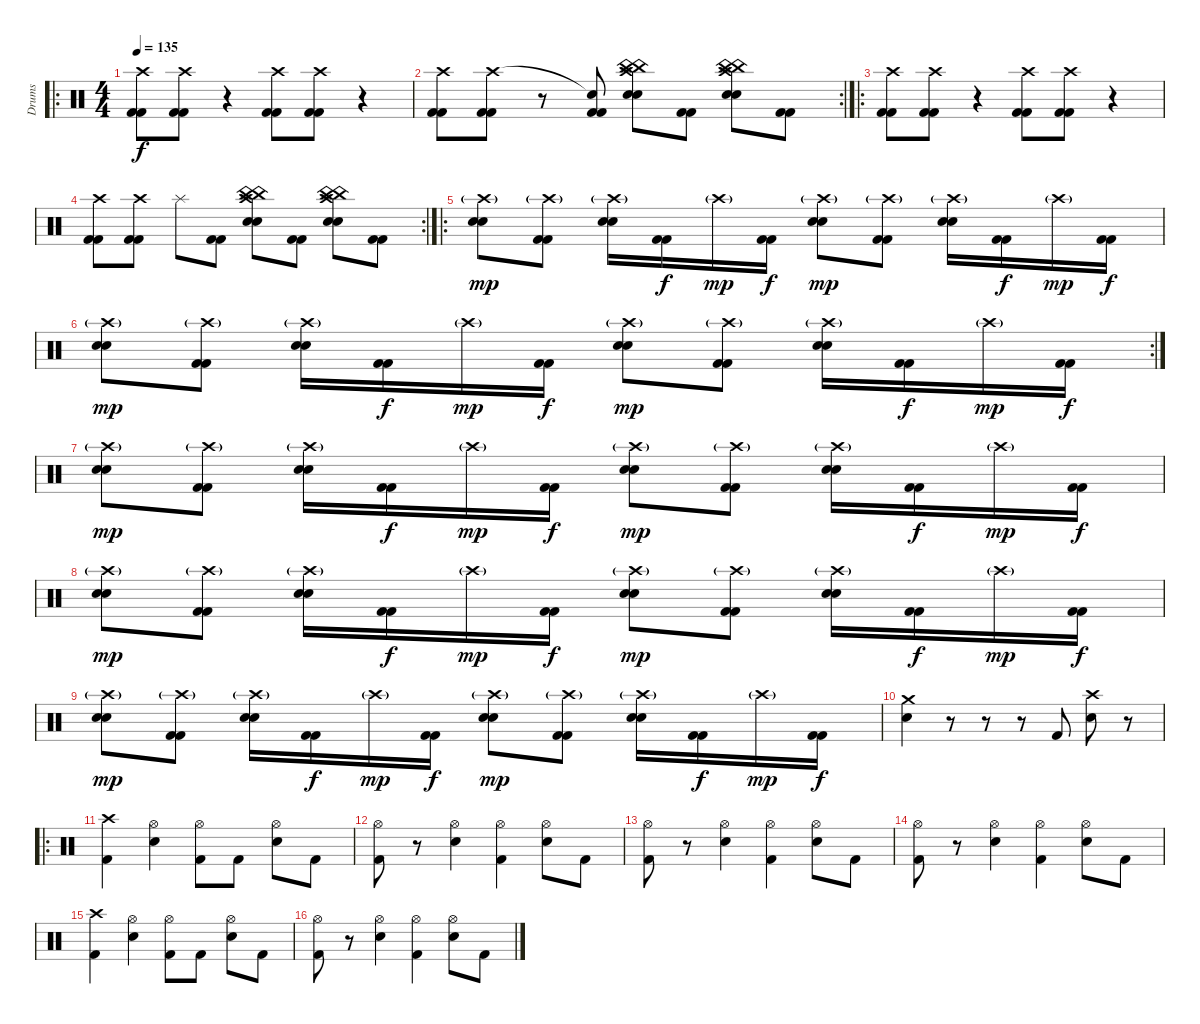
\track ("Drums" "Drums") {instrument percussion}
\staff {score}
\articulation defaults
\ro
\ts (4 4)
\tempo 135
\clef neutral
\ks c
("Crash high (hit)" "Kick (hit) 2" "Kick (hit) 2").8{dy f} ("Crash high (hit)" "Kick (hit) 2" "Kick (hit) 2").8 r.4 ("Crash high (hit)" "Kick (hit) 2" "Kick (hit) 2").8 ("Crash high (hit)" "Kick (hit) 2" "Kick (hit) 2").8 r.4 |
\rc 2
("Crash high (hit)" "Kick (hit) 2" "Kick (hit) 2").8 ("Crash high (hit)" "Kick (hit) 2" "Kick (hit) 2").8 r.8 ("Snare (hit)"{t} "Kick (hit) 2" "Kick (hit) 2").8 ("Crash high (hit)" "China (hit)" "China (hit)" "Electric Snare (hit)" "Electric Snare (hit)").8 ("Kick (hit) 2" "Kick (hit) 2").8 ("Crash high (hit)" "China (hit)" "China (hit)" "Electric Snare (hit)" "Electric Snare (hit)").8 ("Kick (hit) 2" "Kick (hit) 2").8 |
\ro
("Crash high (hit)" "Kick (hit) 2" "Kick (hit) 2").8 ("Crash high (hit)" "Kick (hit) 2" "Kick (hit) 2").8 r.4 ("Crash high (hit)" "Kick (hit) 2" "Kick (hit) 2").8 ("Crash high (hit)" "Kick (hit) 2" "Kick (hit) 2").8 r.4 |
\rc 2
("Crash high (hit)" "Kick (hit) 2" "Kick (hit) 2").8 ("Crash high (hit)" "Kick (hit) 2" "Kick (hit) 2").8 "Splash (hit)".8 ("Kick (hit) 2" "Kick (hit) 2").8 ("Crash high (hit)" "China (hit)" "China (hit)" "Electric Snare (hit)" "Electric Snare (hit)").8 ("Kick (hit) 2" "Kick (hit) 2").8 ("Crash high (hit)" "China (hit)" "China (hit)" "Electric Snare (hit)" "Electric Snare (hit)").8 ("Kick (hit) 2" "Kick (hit) 2").8 |
\ro
("Crash high (hit)"{g} "Electric Snare (hit)" "Electric Snare (hit)").8{dy mp} ("Crash high (hit)"{g} "Kick (hit) 2" "Kick (hit) 2").8 ("Crash high (hit)"{g} "Electric Snare (hit)" "Electric Snare (hit)").16 ("Kick (hit) 2" "Kick (hit) 2").16{dy f} "Crash high (hit)"{g}.16{dy mp} ("Kick (hit) 2" "Kick (hit) 2").16{dy f} ("Crash high (hit)"{g} "Electric Snare (hit)" "Electric Snare (hit)").8{dy mp} ("Crash high (hit)"{g} "Kick (hit) 2" "Kick (hit) 2").8 ("Crash high (hit)"{g} "Electric Snare (hit)" "Electric Snare (hit)").16 ("Kick (hit) 2" "Kick (hit) 2").16{dy f} "Crash high (hit)"{g}.16{dy mp} ("Kick (hit) 2" "Kick (hit) 2").16{dy f} |
\rc 2
("Crash high (hit)"{g} "Electric Snare (hit)" "Electric Snare (hit)").8{dy mp} ("Crash high (hit)"{g} "Kick (hit) 2" "Kick (hit) 2").8 ("Crash high (hit)"{g} "Electric Snare (hit)" "Electric Snare (hit)").16 ("Kick (hit) 2" "Kick (hit) 2").16{dy f} "Crash high (hit)"{g}.16{dy mp} ("Kick (hit) 2" "Kick (hit) 2").16{dy f} ("Crash high (hit)"{g} "Electric Snare (hit)" "Electric Snare (hit)").8{dy mp} ("Crash high (hit)"{g} "Kick (hit) 2" "Kick (hit) 2").8 ("Crash high (hit)"{g} "Electric Snare (hit)" "Electric Snare (hit)").16 ("Kick (hit) 2" "Kick (hit) 2").16{dy f} "Crash high (hit)"{g}.16{dy mp} ("Kick (hit) 2" "Kick (hit) 2").16{dy f} |
("Crash high (hit)"{g} "Electric Snare (hit)" "Electric Snare (hit)").8{dy mp} ("Crash high (hit)"{g} "Kick (hit) 2" "Kick (hit) 2").8 ("Crash high (hit)"{g} "Electric Snare (hit)" "Electric Snare (hit)").16 ("Kick (hit) 2" "Kick (hit) 2").16{dy f} "Crash high (hit)"{g}.16{dy mp} ("Kick (hit) 2" "Kick (hit) 2").16{dy f} ("Crash high (hit)"{g} "Electric Snare (hit)" "Electric Snare (hit)").8{dy mp} ("Crash high (hit)"{g} "Kick (hit) 2" "Kick (hit) 2").8 ("Crash high (hit)"{g} "Electric Snare (hit)" "Electric Snare (hit)").16 ("Kick (hit) 2" "Kick (hit) 2").16{dy f} "Crash high (hit)"{g}.16{dy mp} ("Kick (hit) 2" "Kick (hit) 2").16{dy f} |
("Crash high (hit)"{g} "Electric Snare (hit)" "Electric Snare (hit)").8{dy mp} ("Crash high (hit)"{g} "Kick (hit) 2" "Kick (hit) 2").8 ("Crash high (hit)"{g} "Electric Snare (hit)" "Electric Snare (hit)").16 ("Kick (hit) 2" "Kick (hit) 2").16{dy f} "Crash high (hit)"{g}.16{dy mp} ("Kick (hit) 2" "Kick (hit) 2").16{dy f} ("Crash high (hit)"{g} "Electric Snare (hit)" "Electric Snare (hit)").8{dy mp} ("Crash high (hit)"{g} "Kick (hit) 2" "Kick (hit) 2").8 ("Crash high (hit)"{g} "Electric Snare (hit)" "Electric Snare (hit)").16 ("Kick (hit) 2" "Kick (hit) 2").16{dy f} "Crash high (hit)"{g}.16{dy mp} ("Kick (hit) 2" "Kick (hit) 2").16{dy f} |
("Crash high (hit)"{g} "Electric Snare (hit)" "Electric Snare (hit)").8{dy mp} ("Crash high (hit)"{g} "Kick (hit) 2" "Kick (hit) 2").8 ("Crash high (hit)"{g} "Electric Snare (hit)" "Electric Snare (hit)").16 ("Kick (hit) 2" "Kick (hit) 2").16{dy f} "Crash high (hit)"{g}.16{dy mp} ("Kick (hit) 2" "Kick (hit) 2").16{dy f} ("Crash high (hit)"{g} "Electric Snare (hit)" "Electric Snare (hit)").8{dy mp} ("Crash high (hit)"{g} "Kick (hit) 2" "Kick (hit) 2").8 ("Crash high (hit)"{g} "Electric Snare (hit)" "Electric Snare (hit)").16 ("Kick (hit) 2" "Kick (hit) 2").16{dy f} "Crash high (hit)"{g}.16{dy mp} ("Kick (hit) 2" "Kick (hit) 2").16{dy f} |
("Crash medium (hit)" "Electric Snare (hit)").4 r.8 r.8 r.8 "Kick (hit) 2".8 ("Crash high (hit)" "Electric Snare (hit)").8 r.8 |
\ro
("Crash high (hit)" "Kick (hit) 2").4 ("Hi-Hat (open)" "Electric Snare (hit)").4 ("Hi-Hat (open)" "Kick (hit) 2").8 "Kick (hit) 2".8 ("Hi-Hat (open)" "Electric Snare (hit)").8 "Kick (hit) 2".8 |
("Hi-Hat (open)" "Kick (hit) 2").8 r.8 ("Hi-Hat (open)" "Electric Snare (hit)").4 ("Hi-Hat (open)" "Kick (hit) 2").4 ("Hi-Hat (open)" "Electric Snare (hit)").8 "Kick (hit) 2".8 |
("Hi-Hat (open)" "Kick (hit) 2").8 r.8 ("Hi-Hat (open)" "Electric Snare (hit)").4 ("Hi-Hat (open)" "Kick (hit) 2").4 ("Hi-Hat (open)" "Electric Snare (hit)").8 "Kick (hit) 2".8 |
("Hi-Hat (open)" "Kick (hit) 2").8 r.8 ("Hi-Hat (open)" "Electric Snare (hit)").4 ("Hi-Hat (open)" "Kick (hit) 2").4 ("Hi-Hat (open)" "Electric Snare (hit)").8 "Kick (hit) 2".8 |
("Crash high (hit)" "Kick (hit) 2").4 ("Hi-Hat (open)" "Electric Snare (hit)").4 ("Hi-Hat (open)" "Kick (hit) 2").8 "Kick (hit) 2".8 ("Hi-Hat (open)" "Electric Snare (hit)").8 "Kick (hit) 2".8 |
("Hi-Hat (open)" "Kick (hit) 2").8 r.8 ("Hi-Hat (open)" "Electric Snare (hit)").4 ("Hi-Hat (open)" "Kick (hit) 2").4 ("Hi-Hat (open)" "Electric Snare (hit)").8 "Kick (hit) 2".8
